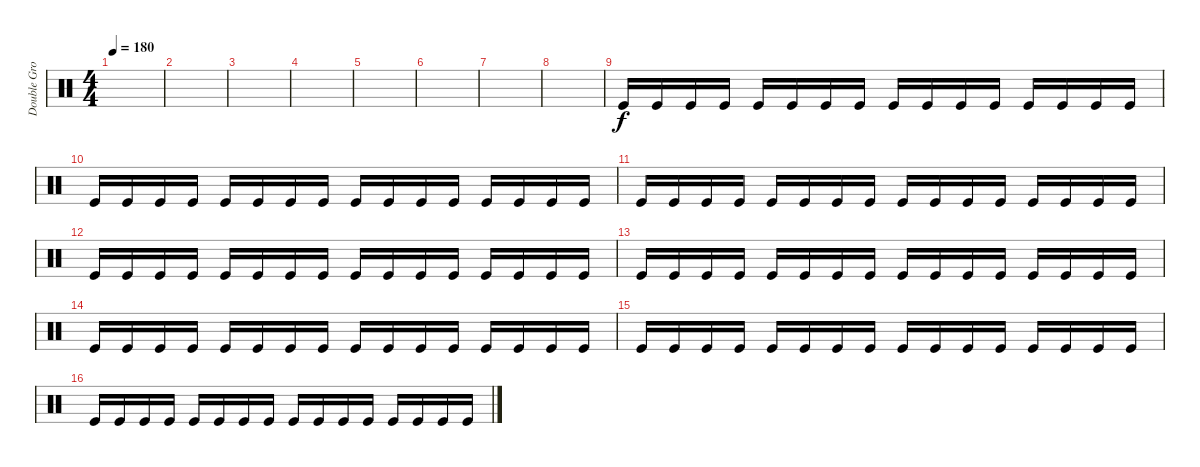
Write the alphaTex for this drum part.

\track ("Double Grosse Caisse" "Double Gro") {instrument percussion}
\staff {score}
\articulation defaults
\ts (4 4)
\tempo 180
\clef neutral
\ks c
|
|
|
|
|
|
|
|
"Kick (hit)".16 "Kick (hit)".16 "Kick (hit)".16 "Kick (hit)".16 "Kick (hit)".16 "Kick (hit)".16 "Kick (hit)".16 "Kick (hit)".16 "Kick (hit)".16 "Kick (hit)".16 "Kick (hit)".16 "Kick (hit)".16 "Kick (hit)".16 "Kick (hit)".16 "Kick (hit)".16 "Kick (hit)".16 |
"Kick (hit)".16 "Kick (hit)".16 "Kick (hit)".16 "Kick (hit)".16 "Kick (hit)".16 "Kick (hit)".16 "Kick (hit)".16 "Kick (hit)".16 "Kick (hit)".16 "Kick (hit)".16 "Kick (hit)".16 "Kick (hit)".16 "Kick (hit)".16 "Kick (hit)".16 "Kick (hit)".16 "Kick (hit)".16 |
"Kick (hit)".16 "Kick (hit)".16 "Kick (hit)".16 "Kick (hit)".16 "Kick (hit)".16 "Kick (hit)".16 "Kick (hit)".16 "Kick (hit)".16 "Kick (hit)".16 "Kick (hit)".16 "Kick (hit)".16 "Kick (hit)".16 "Kick (hit)".16 "Kick (hit)".16 "Kick (hit)".16 "Kick (hit)".16 |
"Kick (hit)".16 "Kick (hit)".16 "Kick (hit)".16 "Kick (hit)".16 "Kick (hit)".16 "Kick (hit)".16 "Kick (hit)".16 "Kick (hit)".16 "Kick (hit)".16 "Kick (hit)".16 "Kick (hit)".16 "Kick (hit)".16 "Kick (hit)".16 "Kick (hit)".16 "Kick (hit)".16 "Kick (hit)".16 |
"Kick (hit)".16 "Kick (hit)".16 "Kick (hit)".16 "Kick (hit)".16 "Kick (hit)".16 "Kick (hit)".16 "Kick (hit)".16 "Kick (hit)".16 "Kick (hit)".16 "Kick (hit)".16 "Kick (hit)".16 "Kick (hit)".16 "Kick (hit)".16 "Kick (hit)".16 "Kick (hit)".16 "Kick (hit)".16 |
"Kick (hit)".16 "Kick (hit)".16 "Kick (hit)".16 "Kick (hit)".16 "Kick (hit)".16 "Kick (hit)".16 "Kick (hit)".16 "Kick (hit)".16 "Kick (hit)".16 "Kick (hit)".16 "Kick (hit)".16 "Kick (hit)".16 "Kick (hit)".16 "Kick (hit)".16 "Kick (hit)".16 "Kick (hit)".16 |
"Kick (hit)".16 "Kick (hit)".16 "Kick (hit)".16 "Kick (hit)".16 "Kick (hit)".16 "Kick (hit)".16 "Kick (hit)".16 "Kick (hit)".16 "Kick (hit)".16 "Kick (hit)".16 "Kick (hit)".16 "Kick (hit)".16 "Kick (hit)".16 "Kick (hit)".16 "Kick (hit)".16 "Kick (hit)".16 |
"Kick (hit)".16 "Kick (hit)".16 "Kick (hit)".16 "Kick (hit)".16 "Kick (hit)".16 "Kick (hit)".16 "Kick (hit)".16 "Kick (hit)".16 "Kick (hit)".16 "Kick (hit)".16 "Kick (hit)".16 "Kick (hit)".16 "Kick (hit)".16 "Kick (hit)".16 "Kick (hit)".16 "Kick (hit)".16
